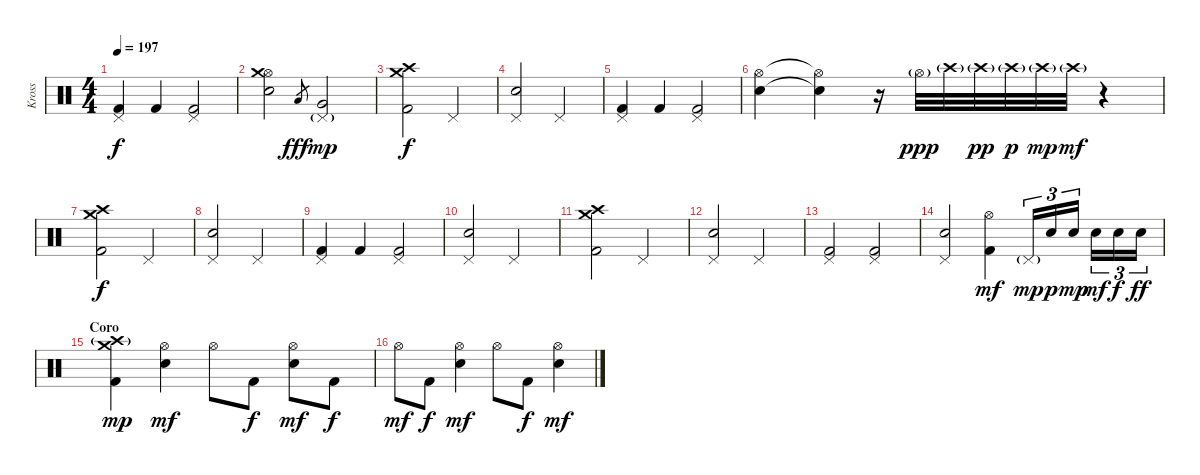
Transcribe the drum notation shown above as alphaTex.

\track ("Kross" "Kross") {instrument percussion}
\staff {score}
\articulation defaults
\ts (4 4)
\tempo 197
\clef neutral
\ks c
("Pedal Hi-Hat (hit)" "Kick (hit) 2").4{dy f} "Kick (hit) 2".4 ("Pedal Hi-Hat (hit)" "Kick (hit) 2").2 |
("Hi-Hat (open)" "Crash medium (hit)" "Electric Snare (hit)").2 "Low Tom (hit)".8{gr dy fff} ("Pedal Hi-Hat (hit)"{g} "Very Low Tom (hit)").2{dy mp} |
("Crash medium (hit)" "Crash high (hit)" "Kick (hit) 2").2{dy f} "Pedal Hi-Hat (hit)".2 |
("Pedal Hi-Hat (hit)" "Electric Snare (hit)").2 "Pedal Hi-Hat (hit)".2 |
("Pedal Hi-Hat (hit)" "Kick (hit) 2").4 "Kick (hit) 2".4 ("Pedal Hi-Hat (hit)" "Kick (hit) 2").2 |
("Hi-Hat (open)" "Electric Snare (hit)").4 ("Hi-Hat (open)"{t} "Snare (hit)"{t}).4 r.16 "Hi-Hat (open)"{g}.32{dy ppp} "Crash high (hit)"{g}.32 "Crash high (hit)"{g}.32{dy pp} "Crash high (hit)"{g}.32{dy p} "Crash high (hit)"{g}.32{dy mp} "Crash high (hit)"{g}.32{dy mf} r.4 |
("Crash medium (hit)" "Crash high (hit)" "Kick (hit) 2").2{dy f} "Pedal Hi-Hat (hit)".2 |
("Pedal Hi-Hat (hit)" "Electric Snare (hit)").2 "Pedal Hi-Hat (hit)".2 |
("Pedal Hi-Hat (hit)" "Kick (hit) 2").4 "Kick (hit) 2".4 ("Pedal Hi-Hat (hit)" "Kick (hit) 2").2 |
("Pedal Hi-Hat (hit)" "Electric Snare (hit)").2 "Pedal Hi-Hat (hit)".2 |
("Crash medium (hit)" "Crash high (hit)" "Kick (hit) 2").2 "Pedal Hi-Hat (hit)".2 |
("Pedal Hi-Hat (hit)" "Electric Snare (hit)").2 "Pedal Hi-Hat (hit)".2 |
("Pedal Hi-Hat (hit)" "Kick (hit) 2").2 ("Pedal Hi-Hat (hit)" "Kick (hit) 2").2 |
("Pedal Hi-Hat (hit)" "Electric Snare (hit)").2 ("Hi-Hat (open)" "Kick (hit) 2").4{dy mf} "Pedal Hi-Hat (hit)"{g}.16{tu (3 2) dy mp} "Electric Snare (hit)".16{tu (3 2) dy p} "Electric Snare (hit)".16{tu (3 2) dy mp} "Electric Snare (hit)".16{tu (3 2) dy mf} "Electric Snare (hit)".16{tu (3 2) dy f} "Electric Snare (hit)".16{tu (3 2) dy ff} |
\section ("" "Coro")
("Crash medium (hit)" "Crash high (hit)"{g} "Kick (hit) 2").4{dy mp} ("Hi-Hat (open)" "Electric Snare (hit)").4{dy mf} "Hi-Hat (open)".8 "Kick (hit) 2".8{dy f} ("Hi-Hat (open)" "Electric Snare (hit)").8{dy mf} "Kick (hit) 2".8{dy f} |
"Hi-Hat (open)".8{dy mf} "Kick (hit) 2".8{dy f} ("Hi-Hat (open)" "Electric Snare (hit)").4{dy mf} "Hi-Hat (open)".8 "Kick (hit) 2".8{dy f} ("Hi-Hat (open)" "Electric Snare (hit)").4{dy mf}
